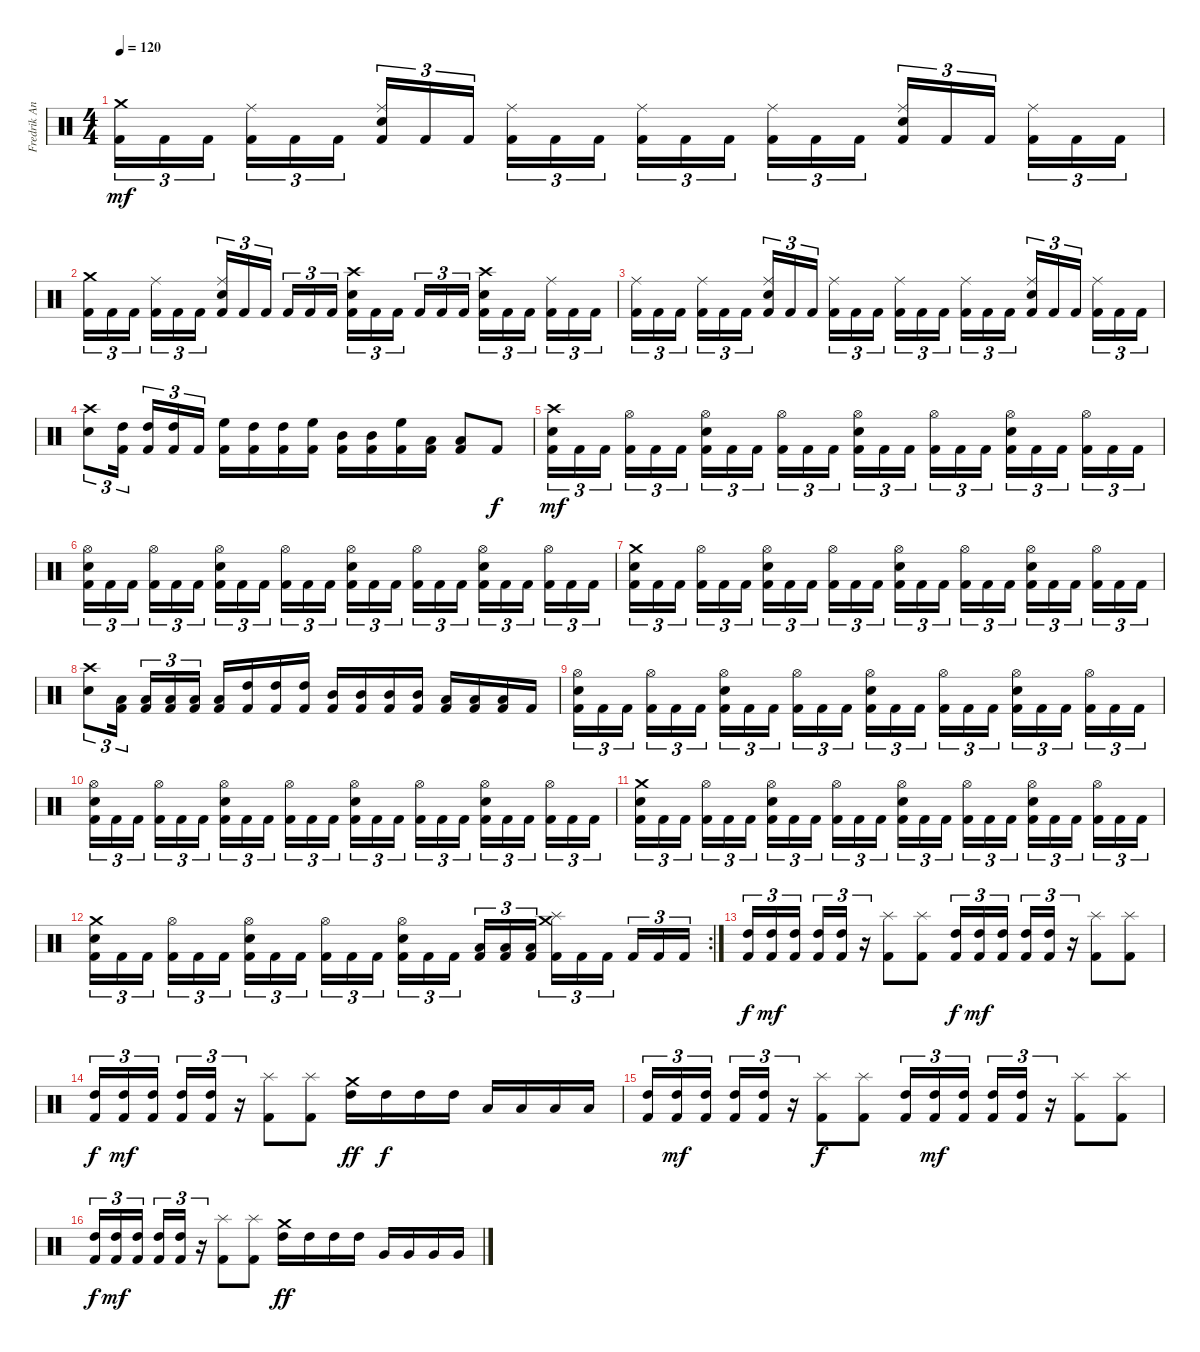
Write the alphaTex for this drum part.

\track ("Fredrik Andersson" "Fredrik An") {instrument percussion}
\staff {score}
\articulation defaults
\ts (4 4)
\tempo 120
\clef neutral
\ks c
("Crash medium (hit)" "Kick (hit) 2").16{tu (3 2) dy mf} "Kick (hit) 2".16{tu (3 2)} "Kick (hit) 2".16{tu (3 2) beam splitsecondary} ("Ride (middle)" "Kick (hit) 2").16{tu (3 2)} "Kick (hit) 2".16{tu (3 2)} "Kick (hit) 2".16{tu (3 2)} ("Snare (hit) 2" "Ride (middle)" "Kick (hit) 2").16{tu (3 2)} "Kick (hit) 2".16{tu (3 2)} "Kick (hit) 2".16{tu (3 2) beam splitsecondary} ("Ride (middle)" "Kick (hit) 2").16{tu (3 2)} "Kick (hit) 2".16{tu (3 2)} "Kick (hit) 2".16{tu (3 2)} ("Ride (middle)" "Kick (hit) 2").16{tu (3 2)} "Kick (hit) 2".16{tu (3 2)} "Kick (hit) 2".16{tu (3 2) beam splitsecondary} ("Ride (middle)" "Kick (hit) 2").16{tu (3 2)} "Kick (hit) 2".16{tu (3 2)} "Kick (hit) 2".16{tu (3 2)} ("Snare (hit) 2" "Ride (middle)" "Kick (hit) 2").16{tu (3 2)} "Kick (hit) 2".16{tu (3 2)} "Kick (hit) 2".16{tu (3 2) beam splitsecondary} ("Ride (middle)" "Kick (hit) 2").16{tu (3 2)} "Kick (hit) 2".16{tu (3 2)} "Kick (hit) 2".16{tu (3 2)} |
("Crash medium (hit)" "Kick (hit) 2").16{tu (3 2)} "Kick (hit) 2".16{tu (3 2)} "Kick (hit) 2".16{tu (3 2) beam splitsecondary} ("Ride (middle)" "Kick (hit) 2").16{tu (3 2)} "Kick (hit) 2".16{tu (3 2)} "Kick (hit) 2".16{tu (3 2)} ("Snare (hit) 2" "Ride (middle)" "Kick (hit) 2").16{tu (3 2)} "Kick (hit) 2".16{tu (3 2)} "Kick (hit) 2".16{tu (3 2) beam splitsecondary} "Kick (hit) 2".16{tu (3 2)} "Kick (hit) 2".16{tu (3 2)} "Kick (hit) 2".16{tu (3 2)} ("Snare (hit) 2" "Crash high (hit)" "Kick (hit) 2").16{tu (3 2)} "Kick (hit) 2".16{tu (3 2)} "Kick (hit) 2".16{tu (3 2) beam splitsecondary} "Kick (hit) 2".16{tu (3 2)} "Kick (hit) 2".16{tu (3 2)} "Kick (hit) 2".16{tu (3 2)} ("Snare (hit) 2" "Crash high (hit)" "Kick (hit) 2").16{tu (3 2)} "Kick (hit) 2".16{tu (3 2)} "Kick (hit) 2".16{tu (3 2) beam splitsecondary} ("Ride (middle)" "Kick (hit) 2").16{tu (3 2)} "Kick (hit) 2".16{tu (3 2)} "Kick (hit) 2".16{tu (3 2)} |
("Ride (middle)" "Kick (hit) 2").16{tu (3 2)} "Kick (hit) 2".16{tu (3 2)} "Kick (hit) 2".16{tu (3 2) beam splitsecondary} ("Ride (middle)" "Kick (hit) 2").16{tu (3 2)} "Kick (hit) 2".16{tu (3 2)} "Kick (hit) 2".16{tu (3 2)} ("Snare (hit) 2" "Ride (middle)" "Kick (hit) 2").16{tu (3 2)} "Kick (hit) 2".16{tu (3 2)} "Kick (hit) 2".16{tu (3 2) beam splitsecondary} ("Ride (middle)" "Kick (hit) 2").16{tu (3 2)} "Kick (hit) 2".16{tu (3 2)} "Kick (hit) 2".16{tu (3 2)} ("Ride (middle)" "Kick (hit) 2").16{tu (3 2)} "Kick (hit) 2".16{tu (3 2)} "Kick (hit) 2".16{tu (3 2) beam splitsecondary} ("Ride (middle)" "Kick (hit) 2").16{tu (3 2)} "Kick (hit) 2".16{tu (3 2)} "Kick (hit) 2".16{tu (3 2)} ("Snare (hit) 2" "Ride (middle)" "Kick (hit) 2").16{tu (3 2)} "Kick (hit) 2".16{tu (3 2)} "Kick (hit) 2".16{tu (3 2) beam splitsecondary} ("Ride (middle)" "Kick (hit) 2").16{tu (3 2)} "Kick (hit) 2".16{tu (3 2)} "Kick (hit) 2".16{tu (3 2)} |
("Crash high (hit)" "Snare (hit) 2").8{tu (3 2)} ("High Tom (hit)" "Kick (hit) 2").16{tu (3 2) beam splitsecondary} ("High Tom (hit)" "Kick (hit) 2").16{tu (3 2)} ("High Tom (hit)" "Kick (hit) 2").16{tu (3 2)} "Kick (hit) 2".16{tu (3 2)} ("High Floor Tom (hit)" "Kick (hit) 2").16 ("High Tom (hit)" "Kick (hit) 2").16 ("High Tom (hit)" "Kick (hit) 2").16 ("High Floor Tom (hit)" "Kick (hit) 2").16 ("Mid Tom (hit)" "Kick (hit) 2").16 ("Mid Tom (hit)" "Kick (hit) 2").16 ("High Floor Tom (hit)" "Kick (hit) 2").16 ("Low Tom (hit)" "Kick (hit) 2").16 ("Low Tom (hit)" "Kick (hit) 2").8 "Kick (hit) 2".8{dy f} |
("Snare (hit) 2" "Crash high (hit)" "Kick (hit) 2").16{tu (3 2) dy mf} "Kick (hit) 2".16{tu (3 2)} "Kick (hit) 2".16{tu (3 2) beam splitsecondary} ("Hi-Hat (open)" "Kick (hit) 2").16{tu (3 2)} "Kick (hit) 2".16{tu (3 2)} "Kick (hit) 2".16{tu (3 2)} ("Snare (hit) 2" "Hi-Hat (open)" "Kick (hit) 2").16{tu (3 2)} "Kick (hit) 2".16{tu (3 2)} "Kick (hit) 2".16{tu (3 2) beam splitsecondary} ("Hi-Hat (open)" "Kick (hit) 2").16{tu (3 2)} "Kick (hit) 2".16{tu (3 2)} "Kick (hit) 2".16{tu (3 2)} ("Snare (hit) 2" "Hi-Hat (open)" "Kick (hit) 2").16{tu (3 2)} "Kick (hit) 2".16{tu (3 2)} "Kick (hit) 2".16{tu (3 2) beam splitsecondary} ("Hi-Hat (open)" "Kick (hit) 2").16{tu (3 2)} "Kick (hit) 2".16{tu (3 2)} "Kick (hit) 2".16{tu (3 2)} ("Snare (hit) 2" "Hi-Hat (open)" "Kick (hit) 2").16{tu (3 2)} "Kick (hit) 2".16{tu (3 2)} "Kick (hit) 2".16{tu (3 2) beam splitsecondary} ("Hi-Hat (open)" "Kick (hit) 2").16{tu (3 2)} "Kick (hit) 2".16{tu (3 2)} "Kick (hit) 2".16{tu (3 2)} |
("Snare (hit) 2" "Hi-Hat (open)" "Kick (hit) 2").16{tu (3 2)} "Kick (hit) 2".16{tu (3 2)} "Kick (hit) 2".16{tu (3 2) beam splitsecondary} ("Hi-Hat (open)" "Kick (hit) 2").16{tu (3 2)} "Kick (hit) 2".16{tu (3 2)} "Kick (hit) 2".16{tu (3 2)} ("Snare (hit) 2" "Hi-Hat (open)" "Kick (hit) 2").16{tu (3 2)} "Kick (hit) 2".16{tu (3 2)} "Kick (hit) 2".16{tu (3 2) beam splitsecondary} ("Hi-Hat (open)" "Kick (hit) 2").16{tu (3 2)} "Kick (hit) 2".16{tu (3 2)} "Kick (hit) 2".16{tu (3 2)} ("Snare (hit) 2" "Hi-Hat (open)" "Kick (hit) 2").16{tu (3 2)} "Kick (hit) 2".16{tu (3 2)} "Kick (hit) 2".16{tu (3 2) beam splitsecondary} ("Hi-Hat (open)" "Kick (hit) 2").16{tu (3 2)} "Kick (hit) 2".16{tu (3 2)} "Kick (hit) 2".16{tu (3 2)} ("Snare (hit) 2" "Hi-Hat (open)" "Kick (hit) 2").16{tu (3 2)} "Kick (hit) 2".16{tu (3 2)} "Kick (hit) 2".16{tu (3 2) beam splitsecondary} ("Hi-Hat (open)" "Kick (hit) 2").16{tu (3 2)} "Kick (hit) 2".16{tu (3 2)} "Kick (hit) 2".16{tu (3 2)} |
("Snare (hit) 2" "Crash medium (hit)" "Kick (hit) 2").16{tu (3 2)} "Kick (hit) 2".16{tu (3 2)} "Kick (hit) 2".16{tu (3 2) beam splitsecondary} ("Hi-Hat (open)" "Kick (hit) 2").16{tu (3 2)} "Kick (hit) 2".16{tu (3 2)} "Kick (hit) 2".16{tu (3 2)} ("Snare (hit) 2" "Hi-Hat (open)" "Kick (hit) 2").16{tu (3 2)} "Kick (hit) 2".16{tu (3 2)} "Kick (hit) 2".16{tu (3 2) beam splitsecondary} ("Hi-Hat (open)" "Kick (hit) 2").16{tu (3 2)} "Kick (hit) 2".16{tu (3 2)} "Kick (hit) 2".16{tu (3 2)} ("Snare (hit) 2" "Hi-Hat (open)" "Kick (hit) 2").16{tu (3 2)} "Kick (hit) 2".16{tu (3 2)} "Kick (hit) 2".16{tu (3 2) beam splitsecondary} ("Hi-Hat (open)" "Kick (hit) 2").16{tu (3 2)} "Kick (hit) 2".16{tu (3 2)} "Kick (hit) 2".16{tu (3 2)} ("Snare (hit) 2" "Hi-Hat (open)" "Kick (hit) 2").16{tu (3 2)} "Kick (hit) 2".16{tu (3 2)} "Kick (hit) 2".16{tu (3 2) beam splitsecondary} ("Hi-Hat (open)" "Kick (hit) 2").16{tu (3 2)} "Kick (hit) 2".16{tu (3 2)} "Kick (hit) 2".16{tu (3 2)} |
("Crash high (hit)" "Snare (hit) 2").8{tu (3 2)} ("Low Tom (hit)" "Kick (hit) 2").16{tu (3 2) beam splitsecondary} ("Low Tom (hit)" "Kick (hit) 2").16{tu (3 2)} ("Low Tom (hit)" "Kick (hit) 2").16{tu (3 2)} ("Low Tom (hit)" "Kick (hit) 2").16{tu (3 2)} ("Low Tom (hit)" "Kick (hit) 2").16 ("High Tom (hit)" "Kick (hit) 2").16 ("High Tom (hit)" "Kick (hit) 2").16 ("High Tom (hit)" "Kick (hit) 2").16 ("Mid Tom (hit)" "Kick (hit) 2").16 ("Mid Tom (hit)" "Kick (hit) 2").16 ("Mid Tom (hit)" "Kick (hit) 2").16 ("Mid Tom (hit)" "Kick (hit) 2").16 ("Low Tom (hit)" "Kick (hit) 2").16 ("Low Tom (hit)" "Kick (hit) 2").16 ("Low Tom (hit)" "Kick (hit) 2").16 "Kick (hit) 2".16 |
("Snare (hit) 2" "Hi-Hat (open)" "Kick (hit) 2").16{tu (3 2)} "Kick (hit) 2".16{tu (3 2)} "Kick (hit) 2".16{tu (3 2) beam splitsecondary} ("Hi-Hat (open)" "Kick (hit) 2").16{tu (3 2)} "Kick (hit) 2".16{tu (3 2)} "Kick (hit) 2".16{tu (3 2)} ("Snare (hit) 2" "Hi-Hat (open)" "Kick (hit) 2").16{tu (3 2)} "Kick (hit) 2".16{tu (3 2)} "Kick (hit) 2".16{tu (3 2) beam splitsecondary} ("Hi-Hat (open)" "Kick (hit) 2").16{tu (3 2)} "Kick (hit) 2".16{tu (3 2)} "Kick (hit) 2".16{tu (3 2)} ("Snare (hit) 2" "Hi-Hat (open)" "Kick (hit) 2").16{tu (3 2)} "Kick (hit) 2".16{tu (3 2)} "Kick (hit) 2".16{tu (3 2) beam splitsecondary} ("Hi-Hat (open)" "Kick (hit) 2").16{tu (3 2)} "Kick (hit) 2".16{tu (3 2)} "Kick (hit) 2".16{tu (3 2)} ("Snare (hit) 2" "Hi-Hat (open)" "Kick (hit) 2").16{tu (3 2)} "Kick (hit) 2".16{tu (3 2)} "Kick (hit) 2".16{tu (3 2) beam splitsecondary} ("Hi-Hat (open)" "Kick (hit) 2").16{tu (3 2)} "Kick (hit) 2".16{tu (3 2)} "Kick (hit) 2".16{tu (3 2)} |
("Snare (hit) 2" "Hi-Hat (open)" "Kick (hit) 2").16{tu (3 2)} "Kick (hit) 2".16{tu (3 2)} "Kick (hit) 2".16{tu (3 2) beam splitsecondary} ("Hi-Hat (open)" "Kick (hit) 2").16{tu (3 2)} "Kick (hit) 2".16{tu (3 2)} "Kick (hit) 2".16{tu (3 2)} ("Snare (hit) 2" "Hi-Hat (open)" "Kick (hit) 2").16{tu (3 2)} "Kick (hit) 2".16{tu (3 2)} "Kick (hit) 2".16{tu (3 2) beam splitsecondary} ("Hi-Hat (open)" "Kick (hit) 2").16{tu (3 2)} "Kick (hit) 2".16{tu (3 2)} "Kick (hit) 2".16{tu (3 2)} ("Snare (hit) 2" "Hi-Hat (open)" "Kick (hit) 2").16{tu (3 2)} "Kick (hit) 2".16{tu (3 2)} "Kick (hit) 2".16{tu (3 2) beam splitsecondary} ("Hi-Hat (open)" "Kick (hit) 2").16{tu (3 2)} "Kick (hit) 2".16{tu (3 2)} "Kick (hit) 2".16{tu (3 2)} ("Snare (hit) 2" "Hi-Hat (open)" "Kick (hit) 2").16{tu (3 2)} "Kick (hit) 2".16{tu (3 2)} "Kick (hit) 2".16{tu (3 2) beam splitsecondary} ("Hi-Hat (open)" "Kick (hit) 2").16{tu (3 2)} "Kick (hit) 2".16{tu (3 2)} "Kick (hit) 2".16{tu (3 2)} |
("Snare (hit) 2" "Crash medium (hit)" "Kick (hit) 2").16{tu (3 2)} "Kick (hit) 2".16{tu (3 2)} "Kick (hit) 2".16{tu (3 2) beam splitsecondary} ("Hi-Hat (open)" "Kick (hit) 2").16{tu (3 2)} "Kick (hit) 2".16{tu (3 2)} "Kick (hit) 2".16{tu (3 2)} ("Snare (hit) 2" "Hi-Hat (open)" "Kick (hit) 2").16{tu (3 2)} "Kick (hit) 2".16{tu (3 2)} "Kick (hit) 2".16{tu (3 2) beam splitsecondary} ("Hi-Hat (open)" "Kick (hit) 2").16{tu (3 2)} "Kick (hit) 2".16{tu (3 2)} "Kick (hit) 2".16{tu (3 2)} ("Snare (hit) 2" "Hi-Hat (open)" "Kick (hit) 2").16{tu (3 2)} "Kick (hit) 2".16{tu (3 2)} "Kick (hit) 2".16{tu (3 2) beam splitsecondary} ("Hi-Hat (open)" "Kick (hit) 2").16{tu (3 2)} "Kick (hit) 2".16{tu (3 2)} "Kick (hit) 2".16{tu (3 2)} ("Snare (hit) 2" "Hi-Hat (open)" "Kick (hit) 2").16{tu (3 2)} "Kick (hit) 2".16{tu (3 2)} "Kick (hit) 2".16{tu (3 2) beam splitsecondary} ("Hi-Hat (open)" "Kick (hit) 2").16{tu (3 2)} "Kick (hit) 2".16{tu (3 2)} "Kick (hit) 2".16{tu (3 2)} |
\rc 2
("Snare (hit) 2" "Crash medium (hit)" "Kick (hit) 2").16{tu (3 2)} "Kick (hit) 2".16{tu (3 2)} "Kick (hit) 2".16{tu (3 2) beam splitsecondary} ("Hi-Hat (open)" "Kick (hit) 2").16{tu (3 2)} "Kick (hit) 2".16{tu (3 2)} "Kick (hit) 2".16{tu (3 2)} ("Snare (hit) 2" "Hi-Hat (open)" "Kick (hit) 2").16{tu (3 2)} "Kick (hit) 2".16{tu (3 2)} "Kick (hit) 2".16{tu (3 2) beam splitsecondary} ("Hi-Hat (open)" "Kick (hit) 2").16{tu (3 2)} "Kick (hit) 2".16{tu (3 2)} "Kick (hit) 2".16{tu (3 2)} ("Snare (hit) 2" "Hi-Hat (open)" "Kick (hit) 2").16{tu (3 2)} "Kick (hit) 2".16{tu (3 2)} "Kick (hit) 2".16{tu (3 2) beam splitsecondary} ("Low Tom (hit)" "Kick (hit) 2").16{tu (3 2)} ("Low Tom (hit)" "Kick (hit) 2").16{tu (3 2)} ("Low Tom (hit)" "Kick (hit) 2").16{tu (3 2)} ("Crash medium (hit)" "Splash (hit)" "Kick (hit) 2").16{tu (3 2)} "Kick (hit) 2".16{tu (3 2)} "Kick (hit) 2".16{tu (3 2) beam splitsecondary} "Kick (hit) 2".16{tu (3 2)} "Kick (hit) 2".16{tu (3 2)} "Kick (hit) 2".16{tu (3 2)} |
("High Tom (hit)" "Kick (hit) 2").16{tu (3 2) dy f} ("High Tom (hit)" "Kick (hit) 2").16{tu (3 2) dy mf} ("High Tom (hit)" "Kick (hit) 2").16{tu (3 2) beam splitsecondary} ("High Tom (hit)" "Kick (hit) 2").16{tu (3 2)} ("High Tom (hit)" "Kick (hit) 2").16{tu (3 2)} r.16{tu (3 2)} ("Splash (hit)" "Kick (hit) 2").8 ("Splash (hit)" "Kick (hit) 2").8 ("High Tom (hit)" "Kick (hit) 2").16{tu (3 2) dy f} ("High Tom (hit)" "Kick (hit) 2").16{tu (3 2) dy mf} ("High Tom (hit)" "Kick (hit) 2").16{tu (3 2) beam splitsecondary} ("High Tom (hit)" "Kick (hit) 2").16{tu (3 2)} ("High Tom (hit)" "Kick (hit) 2").16{tu (3 2)} r.16{tu (3 2)} ("Splash (hit)" "Kick (hit) 2").8 ("Splash (hit)" "Kick (hit) 2").8 |
("High Tom (hit)" "Kick (hit) 2").16{tu (3 2) dy f} ("High Tom (hit)" "Kick (hit) 2").16{tu (3 2) dy mf} ("High Tom (hit)" "Kick (hit) 2").16{tu (3 2) beam splitsecondary} ("High Tom (hit)" "Kick (hit) 2").16{tu (3 2)} ("High Tom (hit)" "Kick (hit) 2").16{tu (3 2)} r.16{tu (3 2)} ("Splash (hit)" "Kick (hit) 2").8 ("Splash (hit)" "Kick (hit) 2").8 ("Crash medium (hit)" "High Tom (hit)").16{dy ff} "High Tom (hit)".16{dy f} "High Tom (hit)".16 "High Tom (hit)".16 "Low Tom (hit)".16 "Low Tom (hit)".16 "Low Tom (hit)".16 "Low Tom (hit)".16 |
("High Tom (hit)" "Kick (hit) 2").16{tu (3 2)} ("High Tom (hit)" "Kick (hit) 2").16{tu (3 2) dy mf} ("High Tom (hit)" "Kick (hit) 2").16{tu (3 2) beam splitsecondary} ("High Tom (hit)" "Kick (hit) 2").16{tu (3 2)} ("High Tom (hit)" "Kick (hit) 2").16{tu (3 2)} r.16{tu (3 2)} ("Splash (hit)" "Kick (hit) 2").8{dy f} ("Splash (hit)" "Kick (hit) 2").8 ("High Tom (hit)" "Kick (hit) 2").16{tu (3 2)} ("High Tom (hit)" "Kick (hit) 2").16{tu (3 2) dy mf} ("High Tom (hit)" "Kick (hit) 2").16{tu (3 2) beam splitsecondary} ("High Tom (hit)" "Kick (hit) 2").16{tu (3 2)} ("High Tom (hit)" "Kick (hit) 2").16{tu (3 2)} r.16{tu (3 2)} ("Splash (hit)" "Kick (hit) 2").8 ("Splash (hit)" "Kick (hit) 2").8 |
("High Tom (hit)" "Kick (hit) 2").16{tu (3 2) dy f} ("High Tom (hit)" "Kick (hit) 2").16{tu (3 2) dy mf} ("High Tom (hit)" "Kick (hit) 2").16{tu (3 2) beam splitsecondary} ("High Tom (hit)" "Kick (hit) 2").16{tu (3 2)} ("High Tom (hit)" "Kick (hit) 2").16{tu (3 2)} r.16{tu (3 2)} ("Splash (hit)" "Kick (hit) 2").8 ("Splash (hit)" "Kick (hit) 2").8 ("Crash medium (hit)" "High Tom (hit)").16{dy ff} "High Tom (hit)".16 "High Tom (hit)".16 "High Tom (hit)".16 "Very Low Tom (hit)".16 "Very Low Tom (hit)".16 "Very Low Tom (hit)".16 "Very Low Tom (hit)".16
